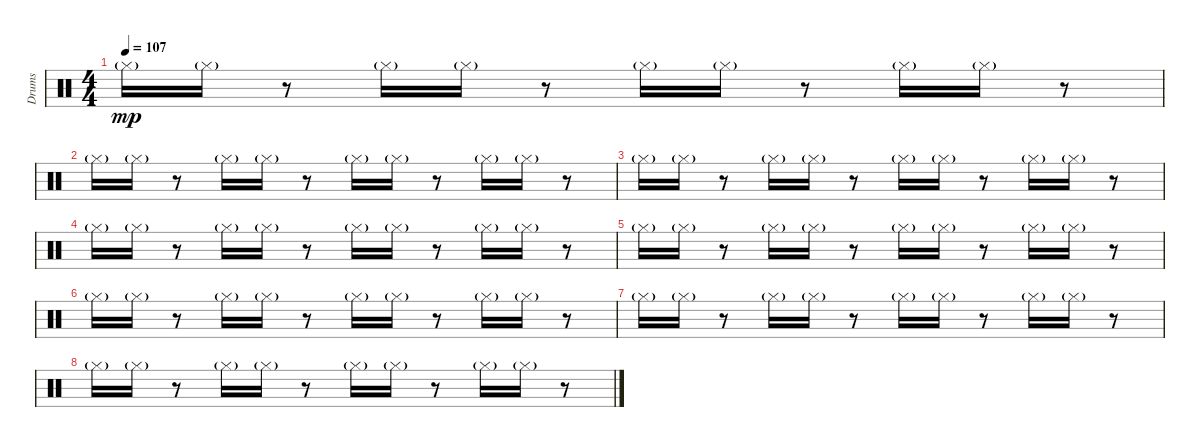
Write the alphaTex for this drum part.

\track ("Drums" "Drums") {instrument percussion}
\staff {score}
\articulation defaults
\ts (4 4)
\tempo 107
\clef neutral
\ks c "Hi-Hat (closed)"{g}.16{dy mp volume 5} "Hi-Hat (closed)"{g}.16
r.8 "Hi-Hat (closed)"{g}.16 "Hi-Hat (closed)"{g}.16 r.8 "Hi-Hat (closed)"{g}.16 "Hi-Hat (closed)"{g}.16 r.8 "Hi-Hat (closed)"{g}.16 "Hi-Hat (closed)"{g}.16 r.8 |
"Hi-Hat (closed)"{g}.16 "Hi-Hat (closed)"{g}.16 r.8 "Hi-Hat (closed)"{g}.16 "Hi-Hat (closed)"{g}.16 r.8 "Hi-Hat (closed)"{g}.16 "Hi-Hat (closed)"{g}.16 r.8 "Hi-Hat (closed)"{g}.16 "Hi-Hat (closed)"{g}.16 r.8 |
"Hi-Hat (closed)"{g}.16 "Hi-Hat (closed)"{g}.16 r.8 "Hi-Hat (closed)"{g}.16 "Hi-Hat (closed)"{g}.16 r.8 "Hi-Hat (closed)"{g}.16 "Hi-Hat (closed)"{g}.16 r.8 "Hi-Hat (closed)"{g}.16 "Hi-Hat (closed)"{g}.16 r.8 |
"Hi-Hat (closed)"{g}.16 "Hi-Hat (closed)"{g}.16 r.8 "Hi-Hat (closed)"{g}.16 "Hi-Hat (closed)"{g}.16 r.8 "Hi-Hat (closed)"{g}.16 "Hi-Hat (closed)"{g}.16 r.8 "Hi-Hat (closed)"{g}.16 "Hi-Hat (closed)"{g}.16 r.8 |
"Hi-Hat (closed)"{g}.16{volume 0} "Hi-Hat (closed)"{g}.16 r.8 "Hi-Hat (closed)"{g}.16 "Hi-Hat (closed)"{g}.16 r.8 "Hi-Hat (closed)"{g}.16 "Hi-Hat (closed)"{g}.16 r.8 "Hi-Hat (closed)"{g}.16 "Hi-Hat (closed)"{g}.16 r.8 |
"Hi-Hat (closed)"{g}.16 "Hi-Hat (closed)"{g}.16 r.8 "Hi-Hat (closed)"{g}.16 "Hi-Hat (closed)"{g}.16 r.8 "Hi-Hat (closed)"{g}.16 "Hi-Hat (closed)"{g}.16 r.8 "Hi-Hat (closed)"{g}.16 "Hi-Hat (closed)"{g}.16 r.8 |
"Hi-Hat (closed)"{g}.16 "Hi-Hat (closed)"{g}.16 r.8 "Hi-Hat (closed)"{g}.16 "Hi-Hat (closed)"{g}.16 r.8 "Hi-Hat (closed)"{g}.16 "Hi-Hat (closed)"{g}.16 r.8 "Hi-Hat (closed)"{g}.16 "Hi-Hat (closed)"{g}.16 r.8 |
"Hi-Hat (closed)"{g}.16 "Hi-Hat (closed)"{g}.16 r.8 "Hi-Hat (closed)"{g}.16 "Hi-Hat (closed)"{g}.16 r.8 "Hi-Hat (closed)"{g}.16 "Hi-Hat (closed)"{g}.16 r.8 "Hi-Hat (closed)"{g}.16 "Hi-Hat (closed)"{g}.16 r.8
